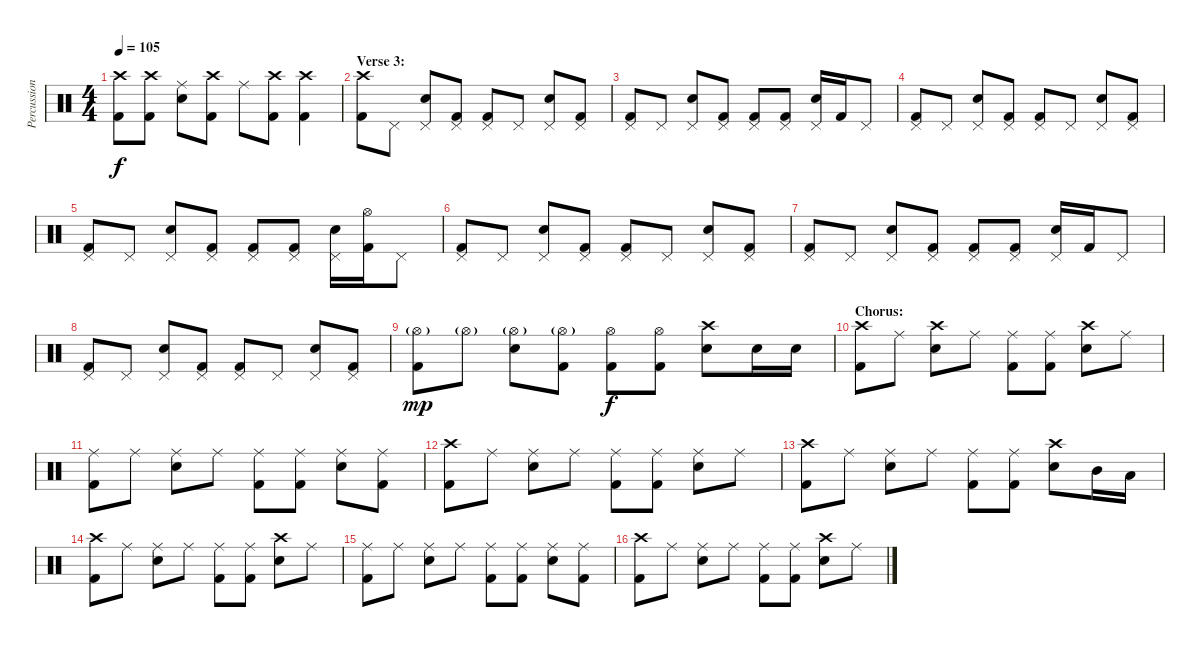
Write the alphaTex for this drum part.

\track ("Percussion" "Percussion") {instrument percussion}
\staff {score}
\articulation defaults
\ts (4 4)
\tempo 105
\clef neutral
\ks c
("Crash high (hit)" "Kick (hit) 2").8{dy f} ("Crash high (hit)" "Kick (hit) 2").8 ("Ride (middle)" "Electric Snare (hit)").8 ("Crash high (hit)" "Kick (hit) 2").8 "Ride (middle)".8 ("Crash high (hit)" "Kick (hit) 2").8 ("Crash high (hit)" "Kick (hit) 2").4 |
\section ("" "Verse 3:")
("Crash high (hit)" "Kick (hit) 2").8 "Pedal Hi-Hat (hit)".8 ("Pedal Hi-Hat (hit)" "Electric Snare (hit)").8 ("Pedal Hi-Hat (hit)" "Kick (hit) 2").8 ("Pedal Hi-Hat (hit)" "Kick (hit) 2").8 "Pedal Hi-Hat (hit)".8 ("Pedal Hi-Hat (hit)" "Electric Snare (hit)").8 ("Pedal Hi-Hat (hit)" "Kick (hit) 2").8 |
("Pedal Hi-Hat (hit)" "Kick (hit) 2").8 "Pedal Hi-Hat (hit)".8 ("Pedal Hi-Hat (hit)" "Electric Snare (hit)").8 ("Pedal Hi-Hat (hit)" "Kick (hit) 2").8 ("Pedal Hi-Hat (hit)" "Kick (hit) 2").8 ("Pedal Hi-Hat (hit)" "Kick (hit) 2").8 ("Pedal Hi-Hat (hit)" "Electric Snare (hit)").16 "Kick (hit) 2".16 "Pedal Hi-Hat (hit)".8 |
("Pedal Hi-Hat (hit)" "Kick (hit) 2").8 "Pedal Hi-Hat (hit)".8 ("Pedal Hi-Hat (hit)" "Electric Snare (hit)").8 ("Pedal Hi-Hat (hit)" "Kick (hit) 2").8 ("Pedal Hi-Hat (hit)" "Kick (hit) 2").8 "Pedal Hi-Hat (hit)".8 ("Pedal Hi-Hat (hit)" "Electric Snare (hit)").8 ("Pedal Hi-Hat (hit)" "Kick (hit) 2").8 |
("Pedal Hi-Hat (hit)" "Kick (hit) 2").8 "Pedal Hi-Hat (hit)".8 ("Pedal Hi-Hat (hit)" "Electric Snare (hit)").8 ("Pedal Hi-Hat (hit)" "Kick (hit) 2").8 ("Pedal Hi-Hat (hit)" "Kick (hit) 2").8 ("Pedal Hi-Hat (hit)" "Kick (hit) 2").8 ("Pedal Hi-Hat (hit)" "Electric Snare (hit)").16 ("Hi-Hat (open)" "Kick (hit) 2").16 "Pedal Hi-Hat (hit)".8 |
("Pedal Hi-Hat (hit)" "Kick (hit) 2").8 "Pedal Hi-Hat (hit)".8 ("Pedal Hi-Hat (hit)" "Electric Snare (hit)").8 ("Pedal Hi-Hat (hit)" "Kick (hit) 2").8 ("Pedal Hi-Hat (hit)" "Kick (hit) 2").8 "Pedal Hi-Hat (hit)".8 ("Pedal Hi-Hat (hit)" "Electric Snare (hit)").8 ("Pedal Hi-Hat (hit)" "Kick (hit) 2").8 |
("Pedal Hi-Hat (hit)" "Kick (hit) 2").8 "Pedal Hi-Hat (hit)".8 ("Pedal Hi-Hat (hit)" "Electric Snare (hit)").8 ("Pedal Hi-Hat (hit)" "Kick (hit) 2").8 ("Pedal Hi-Hat (hit)" "Kick (hit) 2").8 ("Pedal Hi-Hat (hit)" "Kick (hit) 2").8 ("Pedal Hi-Hat (hit)" "Electric Snare (hit)").16 "Kick (hit) 2".16 "Pedal Hi-Hat (hit)".8 |
("Pedal Hi-Hat (hit)" "Kick (hit) 2").8 "Pedal Hi-Hat (hit)".8 ("Pedal Hi-Hat (hit)" "Electric Snare (hit)").8 ("Pedal Hi-Hat (hit)" "Kick (hit) 2").8 ("Pedal Hi-Hat (hit)" "Kick (hit) 2").8 "Pedal Hi-Hat (hit)".8 ("Pedal Hi-Hat (hit)" "Electric Snare (hit)").8 ("Pedal Hi-Hat (hit)" "Kick (hit) 2").8 |
("Hi-Hat (open)"{g} "Kick (hit) 2").8{dy mp} "Hi-Hat (open)"{g}.8 ("Hi-Hat (open)"{g} "Electric Snare (hit)").8 ("Hi-Hat (open)"{g} "Kick (hit) 2").8 ("Hi-Hat (open)" "Kick (hit) 2").8{dy f} ("Hi-Hat (open)" "Kick (hit) 2").8 ("Crash high (hit)" "Electric Snare (hit)").8 "Electric Snare (hit)".16 "Electric Snare (hit)".16 |
\section ("" "Chorus:")
("Crash high (hit)" "Kick (hit) 2").8 "Ride (middle)".8 ("Crash high (hit)" "Electric Snare (hit)").8 "Ride (middle)".8 ("Ride (middle)" "Kick (hit) 2").8 ("Ride (middle)" "Kick (hit) 2").8 ("Crash high (hit)" "Electric Snare (hit)").8 "Ride (middle)".8 |
("Ride (middle)" "Kick (hit) 2").8 "Ride (middle)".8 ("Ride (middle)" "Electric Snare (hit)").8 "Ride (middle)".8 ("Ride (middle)" "Kick (hit) 2").8 ("Ride (middle)" "Kick (hit) 2").8 ("Ride (middle)" "Electric Snare (hit)").8 ("Ride (middle)" "Kick (hit) 2").8 |
("Crash high (hit)" "Kick (hit) 2").8 "Ride (middle)".8 ("Ride (middle)" "Electric Snare (hit)").8 "Ride (middle)".8 ("Ride (middle)" "Kick (hit) 2").8 ("Ride (middle)" "Kick (hit) 2").8 ("Ride (middle)" "Electric Snare (hit)").8 "Ride (middle)".8 |
("Crash high (hit)" "Kick (hit) 2").8 "Ride (middle)".8 ("Ride (middle)" "Electric Snare (hit)").8 "Ride (middle)".8 ("Ride (middle)" "Kick (hit) 2").8 ("Ride (middle)" "Kick (hit) 2").8 ("Crash high (hit)" "Electric Snare (hit)").8 "Mid Tom (hit)".16 "Low Tom (hit)".16 |
("Crash high (hit)" "Kick (hit) 2").8 "Ride (middle)".8 ("Ride (middle)" "Electric Snare (hit)").8 "Ride (middle)".8 ("Ride (middle)" "Kick (hit) 2").8 ("Ride (middle)" "Kick (hit) 2").8 ("Crash high (hit)" "Electric Snare (hit)").8 "Ride (middle)".8 |
("Ride (middle)" "Kick (hit) 2").8 "Ride (middle)".8 ("Ride (middle)" "Electric Snare (hit)").8 "Ride (middle)".8 ("Ride (middle)" "Kick (hit) 2").8 ("Ride (middle)" "Kick (hit) 2").8 ("Ride (middle)" "Electric Snare (hit)").8 ("Ride (middle)" "Kick (hit) 2").8 |
("Crash high (hit)" "Kick (hit) 2").8 "Ride (middle)".8 ("Ride (middle)" "Electric Snare (hit)").8 "Ride (middle)".8 ("Ride (middle)" "Kick (hit) 2").8 ("Ride (middle)" "Kick (hit) 2").8 ("Crash high (hit)" "Electric Snare (hit)").8 "Ride (middle)".8
